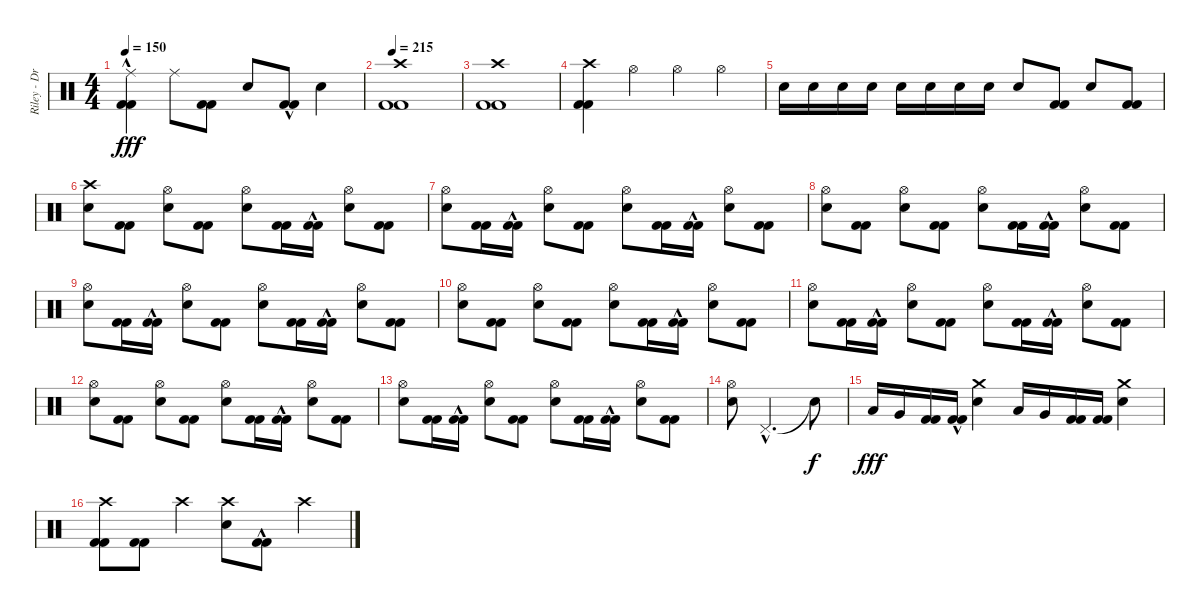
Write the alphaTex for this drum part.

\track ("Riley - Drums" "Riley - Dr") {instrument percussion}
\staff {score}
\articulation defaults
\ts (4 4)
\tempo 150
\clef neutral
\ks c
("Kick (hit) 2"{hac} "Kick (hit) 2"{hac} "Ride (middle)").4{dy fff} "Ride (middle)".8 ("Kick (hit) 2" "Kick (hit) 2").8 "Electric Snare (hit)".8 ("Kick (hit) 2"{hac} "Kick (hit) 2"{hac}).8 "Electric Snare (hit)".4 |
\tempo 215
("Kick (hit) 2" "Kick (hit) 2" "Crash high (hit)").1 |
("Kick (hit) 2" "Kick (hit) 2" "Crash high (hit)").1 |
("Kick (hit) 2" "Kick (hit) 2" "Crash high (hit)").4 "Hi-Hat (open)".4 "Hi-Hat (open)".4 "Hi-Hat (open)".4 |
"Electric Snare (hit)".16 "Electric Snare (hit)".16 "Electric Snare (hit)".16 "Electric Snare (hit)".16 "Electric Snare (hit)".16 "Electric Snare (hit)".16 "Electric Snare (hit)".16 "Electric Snare (hit)".16 "Electric Snare (hit)".8 ("Kick (hit) 2" "Kick (hit) 2").8 "Electric Snare (hit)".8 ("Kick (hit) 2" "Kick (hit) 2").8 |
("Electric Snare (hit)" "Crash high (hit)").8 ("Kick (hit) 2" "Kick (hit) 2").8 ("Electric Snare (hit)" "Hi-Hat (open)").8 ("Kick (hit) 2" "Kick (hit) 2").8 ("Electric Snare (hit)" "Hi-Hat (open)").8 ("Kick (hit) 2" "Kick (hit) 2").16 ("Kick (hit) 2"{hac} "Kick (hit) 2"{hac}).16 ("Electric Snare (hit)" "Hi-Hat (open)").8 ("Kick (hit) 2" "Kick (hit) 2").8 |
("Electric Snare (hit)" "Hi-Hat (open)").8 ("Kick (hit) 2" "Kick (hit) 2").16 ("Kick (hit) 2"{hac} "Kick (hit) 2"{hac}).16 ("Electric Snare (hit)" "Hi-Hat (open)").8 ("Kick (hit) 2" "Kick (hit) 2").8 ("Electric Snare (hit)" "Hi-Hat (open)").8 ("Kick (hit) 2" "Kick (hit) 2").16 ("Kick (hit) 2"{hac} "Kick (hit) 2"{hac}).16 ("Electric Snare (hit)" "Hi-Hat (open)").8 ("Kick (hit) 2" "Kick (hit) 2").8 |
("Electric Snare (hit)" "Hi-Hat (open)").8 ("Kick (hit) 2" "Kick (hit) 2").8 ("Electric Snare (hit)" "Hi-Hat (open)").8 ("Kick (hit) 2" "Kick (hit) 2").8 ("Electric Snare (hit)" "Hi-Hat (open)").8 ("Kick (hit) 2" "Kick (hit) 2").16 ("Kick (hit) 2"{hac} "Kick (hit) 2"{hac}).16 ("Electric Snare (hit)" "Hi-Hat (open)").8 ("Kick (hit) 2" "Kick (hit) 2").8 |
("Electric Snare (hit)" "Hi-Hat (open)").8 ("Kick (hit) 2" "Kick (hit) 2").16 ("Kick (hit) 2"{hac} "Kick (hit) 2"{hac}).16 ("Electric Snare (hit)" "Hi-Hat (open)").8 ("Kick (hit) 2" "Kick (hit) 2").8 ("Electric Snare (hit)" "Hi-Hat (open)").8 ("Kick (hit) 2" "Kick (hit) 2").16 ("Kick (hit) 2"{hac} "Kick (hit) 2"{hac}).16 ("Electric Snare (hit)" "Hi-Hat (open)").8 ("Kick (hit) 2" "Kick (hit) 2").8 |
("Electric Snare (hit)" "Hi-Hat (open)").8 ("Kick (hit) 2" "Kick (hit) 2").8 ("Electric Snare (hit)" "Hi-Hat (open)").8 ("Kick (hit) 2" "Kick (hit) 2").8 ("Electric Snare (hit)" "Hi-Hat (open)").8 ("Kick (hit) 2" "Kick (hit) 2").16 ("Kick (hit) 2"{hac} "Kick (hit) 2"{hac}).16 ("Electric Snare (hit)" "Hi-Hat (open)").8 ("Kick (hit) 2" "Kick (hit) 2").8 |
("Electric Snare (hit)" "Hi-Hat (open)").8 ("Kick (hit) 2" "Kick (hit) 2").16 ("Kick (hit) 2"{hac} "Kick (hit) 2"{hac}).16 ("Electric Snare (hit)" "Hi-Hat (open)").8 ("Kick (hit) 2" "Kick (hit) 2").8 ("Electric Snare (hit)" "Hi-Hat (open)").8 ("Kick (hit) 2" "Kick (hit) 2").16 ("Kick (hit) 2"{hac} "Kick (hit) 2"{hac}).16 ("Electric Snare (hit)" "Hi-Hat (open)").8 ("Kick (hit) 2" "Kick (hit) 2").8 |
("Electric Snare (hit)" "Hi-Hat (open)").8 ("Kick (hit) 2" "Kick (hit) 2").8 ("Electric Snare (hit)" "Hi-Hat (open)").8 ("Kick (hit) 2" "Kick (hit) 2").8 ("Electric Snare (hit)" "Hi-Hat (open)").8 ("Kick (hit) 2" "Kick (hit) 2").16 ("Kick (hit) 2"{hac} "Kick (hit) 2"{hac}).16 ("Electric Snare (hit)" "Hi-Hat (open)").8 ("Kick (hit) 2" "Kick (hit) 2").8 |
("Electric Snare (hit)" "Hi-Hat (open)").8 ("Kick (hit) 2" "Kick (hit) 2").16 ("Kick (hit) 2"{hac} "Kick (hit) 2"{hac}).16 ("Electric Snare (hit)" "Hi-Hat (open)").8 ("Kick (hit) 2" "Kick (hit) 2").8 ("Electric Snare (hit)" "Hi-Hat (open)").8 ("Kick (hit) 2" "Kick (hit) 2").16 ("Kick (hit) 2"{hac} "Kick (hit) 2"{hac}).16 ("Electric Snare (hit)" "Hi-Hat (open)").8 ("Kick (hit) 2" "Kick (hit) 2").8 |
("Electric Snare (hit)" "Hi-Hat (open)").8 "Pedal Hi-Hat (hit)"{hac}.2{d} "Snare (hit)"{t}.8{dy f} |
"Low Tom (hit)".16{dy fff} "Very Low Tom (hit)".16 ("Kick (hit) 2" "Kick (hit) 2").16 ("Kick (hit) 2"{hac} "Kick (hit) 2"{hac}).16 ("Electric Snare (hit)" "Crash medium (hit)").4 "Low Tom (hit)".16 "Very Low Tom (hit)".16 ("Kick (hit) 2" "Kick (hit) 2").16 ("Kick (hit) 2" "Kick (hit) 2").16 ("Electric Snare (hit)" "Crash medium (hit)").4 |
("Kick (hit) 2" "Kick (hit) 2" "Crash high (hit)").8 ("Kick (hit) 2" "Kick (hit) 2").8 "Crash high (hit)".4 ("Electric Snare (hit)" "Crash high (hit)").8 ("Kick (hit) 2"{hac} "Kick (hit) 2"{hac}).8 "Crash high (hit)".4
